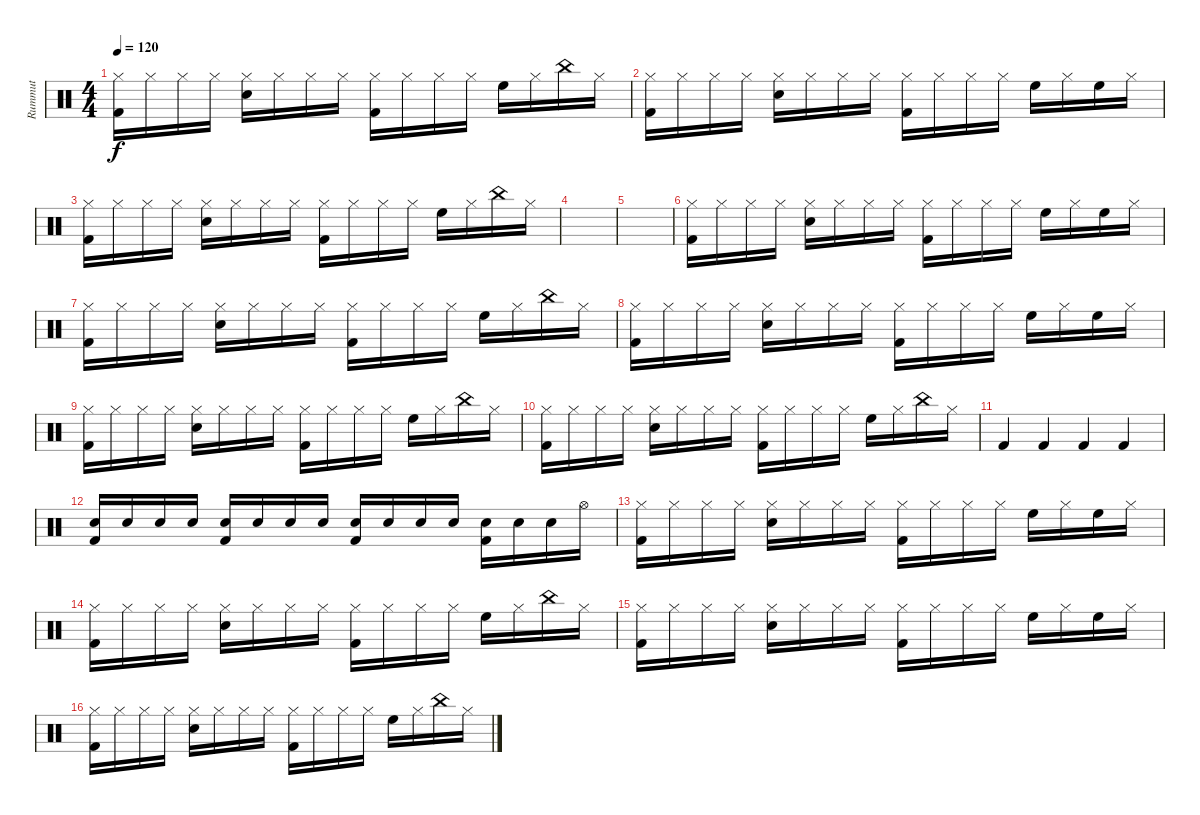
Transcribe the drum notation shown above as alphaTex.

\track ("Rummut" "Rummut") {instrument percussion}
\staff {score}
\articulation defaults
\ts (4 4)
\tempo 120
\clef neutral
\ks c
("Hi-Hat (closed)" "Kick (hit) 2").16{dy f} "Hi-Hat (closed)".16 "Hi-Hat (closed)".16 "Hi-Hat (closed)".16 ("Hi-Hat (closed)" "Snare (hit) 2").16 "Hi-Hat (closed)".16 "Hi-Hat (closed)".16 "Hi-Hat (closed)".16 ("Hi-Hat (closed)" "Kick (hit) 2").16 "Hi-Hat (closed)".16 "Hi-Hat (closed)".16 "Hi-Hat (closed)".16 "High Floor Tom (hit)".16 "Hi-Hat (closed)".16 "China (hit)".16 "Hi-Hat (closed)".16 |
("Hi-Hat (closed)" "Kick (hit) 2").16 "Hi-Hat (closed)".16 "Hi-Hat (closed)".16 "Hi-Hat (closed)".16 ("Hi-Hat (closed)" "Snare (hit) 2").16 "Hi-Hat (closed)".16 "Hi-Hat (closed)".16 "Hi-Hat (closed)".16 ("Hi-Hat (closed)" "Kick (hit) 2").16 "Hi-Hat (closed)".16 "Hi-Hat (closed)".16 "Hi-Hat (closed)".16 "High Floor Tom (hit)".16 "Hi-Hat (closed)".16 "High Floor Tom (hit)".16 "Hi-Hat (closed)".16 |
("Hi-Hat (closed)" "Kick (hit) 2").16 "Hi-Hat (closed)".16 "Hi-Hat (closed)".16 "Hi-Hat (closed)".16 ("Hi-Hat (closed)" "Snare (hit) 2").16 "Hi-Hat (closed)".16 "Hi-Hat (closed)".16 "Hi-Hat (closed)".16 ("Hi-Hat (closed)" "Kick (hit) 2").16 "Hi-Hat (closed)".16 "Hi-Hat (closed)".16 "Hi-Hat (closed)".16 "High Floor Tom (hit)".16 "Hi-Hat (closed)".16 "China (hit)".16 "Hi-Hat (closed)".16 |
|
|
("Hi-Hat (closed)" "Kick (hit) 2").16 "Hi-Hat (closed)".16 "Hi-Hat (closed)".16 "Hi-Hat (closed)".16 ("Hi-Hat (closed)" "Snare (hit) 2").16 "Hi-Hat (closed)".16 "Hi-Hat (closed)".16 "Hi-Hat (closed)".16 ("Hi-Hat (closed)" "Kick (hit) 2").16 "Hi-Hat (closed)".16 "Hi-Hat (closed)".16 "Hi-Hat (closed)".16 "High Floor Tom (hit)".16 "Hi-Hat (closed)".16 "High Floor Tom (hit)".16 "Hi-Hat (closed)".16 |
("Hi-Hat (closed)" "Kick (hit) 2").16 "Hi-Hat (closed)".16 "Hi-Hat (closed)".16 "Hi-Hat (closed)".16 ("Hi-Hat (closed)" "Snare (hit) 2").16 "Hi-Hat (closed)".16 "Hi-Hat (closed)".16 "Hi-Hat (closed)".16 ("Hi-Hat (closed)" "Kick (hit) 2").16 "Hi-Hat (closed)".16 "Hi-Hat (closed)".16 "Hi-Hat (closed)".16 "High Floor Tom (hit)".16 "Hi-Hat (closed)".16 "China (hit)".16 "Hi-Hat (closed)".16 |
("Hi-Hat (closed)" "Kick (hit) 2").16 "Hi-Hat (closed)".16 "Hi-Hat (closed)".16 "Hi-Hat (closed)".16 ("Hi-Hat (closed)" "Snare (hit) 2").16 "Hi-Hat (closed)".16 "Hi-Hat (closed)".16 "Hi-Hat (closed)".16 ("Hi-Hat (closed)" "Kick (hit) 2").16 "Hi-Hat (closed)".16 "Hi-Hat (closed)".16 "Hi-Hat (closed)".16 "High Floor Tom (hit)".16 "Hi-Hat (closed)".16 "High Floor Tom (hit)".16 "Hi-Hat (closed)".16 |
("Hi-Hat (closed)" "Kick (hit) 2").16 "Hi-Hat (closed)".16 "Hi-Hat (closed)".16 "Hi-Hat (closed)".16 ("Hi-Hat (closed)" "Snare (hit) 2").16 "Hi-Hat (closed)".16 "Hi-Hat (closed)".16 "Hi-Hat (closed)".16 ("Hi-Hat (closed)" "Kick (hit) 2").16 "Hi-Hat (closed)".16 "Hi-Hat (closed)".16 "Hi-Hat (closed)".16 "High Floor Tom (hit)".16 "Hi-Hat (closed)".16 "China (hit)".16 "Hi-Hat (closed)".16 |
("Hi-Hat (closed)" "Kick (hit) 2").16 "Hi-Hat (closed)".16 "Hi-Hat (closed)".16 "Hi-Hat (closed)".16 ("Hi-Hat (closed)" "Snare (hit) 2").16 "Hi-Hat (closed)".16 "Hi-Hat (closed)".16 "Hi-Hat (closed)".16 ("Hi-Hat (closed)" "Kick (hit) 2").16 "Hi-Hat (closed)".16 "Hi-Hat (closed)".16 "Hi-Hat (closed)".16 "High Floor Tom (hit)".16 "Hi-Hat (closed)".16 "China (hit)".16 "Hi-Hat (closed)".16 |
"Kick (hit) 2".4 "Kick (hit) 2".4 "Kick (hit) 2".4 "Kick (hit) 2".4 |
("Snare (hit) 2" "Kick (hit) 2").16 "Snare (hit) 2".16 "Snare (hit) 2".16 "Snare (hit) 2".16 ("Snare (hit) 2" "Kick (hit) 2").16 "Snare (hit) 2".16 "Snare (hit) 2".16 "Snare (hit) 2".16 ("Snare (hit) 2" "Kick (hit) 2").16 "Snare (hit) 2".16 "Snare (hit) 2".16 "Snare (hit) 2".16 ("Snare (hit) 2" "Kick (hit) 2").16 "Snare (hit) 2".16 "Snare (hit) 2".16 "Hi-Hat (open)".16 |
("Hi-Hat (closed)" "Kick (hit) 2").16 "Hi-Hat (closed)".16 "Hi-Hat (closed)".16 "Hi-Hat (closed)".16 ("Hi-Hat (closed)" "Snare (hit) 2").16 "Hi-Hat (closed)".16 "Hi-Hat (closed)".16 "Hi-Hat (closed)".16 ("Hi-Hat (closed)" "Kick (hit) 2").16 "Hi-Hat (closed)".16 "Hi-Hat (closed)".16 "Hi-Hat (closed)".16 "High Floor Tom (hit)".16 "Hi-Hat (closed)".16 "High Floor Tom (hit)".16 "Hi-Hat (closed)".16 |
("Hi-Hat (closed)" "Kick (hit) 2").16 "Hi-Hat (closed)".16 "Hi-Hat (closed)".16 "Hi-Hat (closed)".16 ("Hi-Hat (closed)" "Snare (hit) 2").16 "Hi-Hat (closed)".16 "Hi-Hat (closed)".16 "Hi-Hat (closed)".16 ("Hi-Hat (closed)" "Kick (hit) 2").16 "Hi-Hat (closed)".16 "Hi-Hat (closed)".16 "Hi-Hat (closed)".16 "High Floor Tom (hit)".16 "Hi-Hat (closed)".16 "China (hit)".16 "Hi-Hat (closed)".16 |
("Hi-Hat (closed)" "Kick (hit) 2").16 "Hi-Hat (closed)".16 "Hi-Hat (closed)".16 "Hi-Hat (closed)".16 ("Hi-Hat (closed)" "Snare (hit) 2").16 "Hi-Hat (closed)".16 "Hi-Hat (closed)".16 "Hi-Hat (closed)".16 ("Hi-Hat (closed)" "Kick (hit) 2").16 "Hi-Hat (closed)".16 "Hi-Hat (closed)".16 "Hi-Hat (closed)".16 "High Floor Tom (hit)".16 "Hi-Hat (closed)".16 "High Floor Tom (hit)".16 "Hi-Hat (closed)".16 |
("Hi-Hat (closed)" "Kick (hit) 2").16 "Hi-Hat (closed)".16 "Hi-Hat (closed)".16 "Hi-Hat (closed)".16 ("Hi-Hat (closed)" "Snare (hit) 2").16 "Hi-Hat (closed)".16 "Hi-Hat (closed)".16 "Hi-Hat (closed)".16 ("Hi-Hat (closed)" "Kick (hit) 2").16 "Hi-Hat (closed)".16 "Hi-Hat (closed)".16 "Hi-Hat (closed)".16 "High Floor Tom (hit)".16 "Hi-Hat (closed)".16 "China (hit)".16 "Hi-Hat (closed)".16
